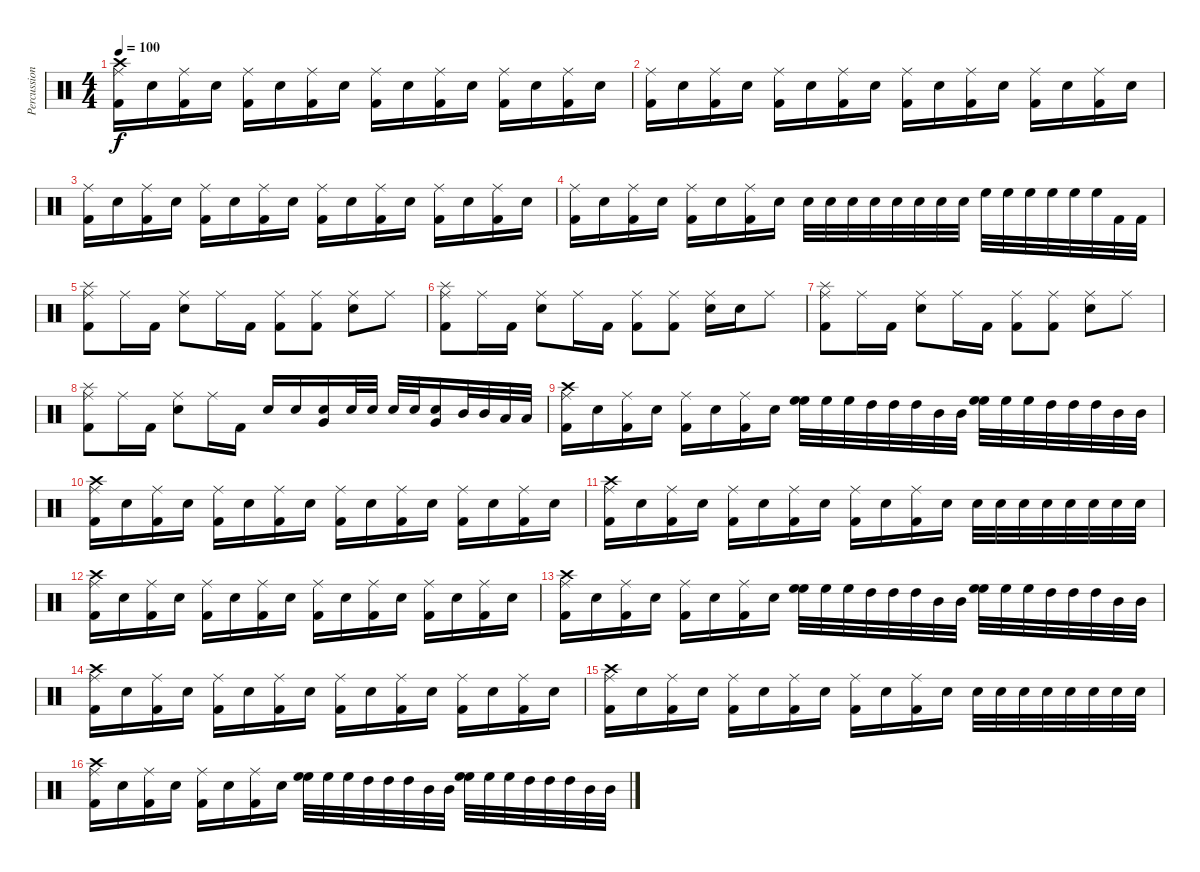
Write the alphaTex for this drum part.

\track ("Percussion" "Percussion") {instrument percussion}
\staff {score}
\articulation defaults
\ts (4 4)
\tempo 100
\clef neutral
\ks c
("Crash high (hit)" "Ride (middle)" "Kick (hit) 2").16{dy f} "Snare (hit) 2".16 ("Ride (middle)" "Kick (hit) 2").16 "Snare (hit) 2".16 ("Ride (middle)" "Kick (hit) 2").16 "Snare (hit) 2".16 ("Ride (middle)" "Kick (hit) 2").16 "Snare (hit) 2".16 ("Ride (middle)" "Kick (hit) 2").16 "Snare (hit) 2".16 ("Ride (middle)" "Kick (hit) 2").16 "Snare (hit) 2".16 ("Ride (middle)" "Kick (hit) 2").16 "Snare (hit) 2".16 ("Ride (middle)" "Kick (hit) 2").16 "Snare (hit) 2".16 |
("Ride (middle)" "Kick (hit) 2").16 "Snare (hit) 2".16 ("Ride (middle)" "Kick (hit) 2").16 "Snare (hit) 2".16 ("Ride (middle)" "Kick (hit) 2").16 "Snare (hit) 2".16 ("Ride (middle)" "Kick (hit) 2").16 "Snare (hit) 2".16 ("Ride (middle)" "Kick (hit) 2").16 "Snare (hit) 2".16 ("Ride (middle)" "Kick (hit) 2").16 "Snare (hit) 2".16 ("Ride (middle)" "Kick (hit) 2").16 "Snare (hit) 2".16 ("Ride (middle)" "Kick (hit) 2").16 "Snare (hit) 2".16 |
("Ride (middle)" "Kick (hit) 2").16 "Snare (hit) 2".16 ("Ride (middle)" "Kick (hit) 2").16 "Snare (hit) 2".16 ("Ride (middle)" "Kick (hit) 2").16 "Snare (hit) 2".16 ("Ride (middle)" "Kick (hit) 2").16 "Snare (hit) 2".16 ("Ride (middle)" "Kick (hit) 2").16 "Snare (hit) 2".16 ("Ride (middle)" "Kick (hit) 2").16 "Snare (hit) 2".16 ("Ride (middle)" "Kick (hit) 2").16 "Snare (hit) 2".16 ("Ride (middle)" "Kick (hit) 2").16 "Snare (hit) 2".16 |
("Ride (middle)" "Kick (hit) 2").16 "Snare (hit) 2".16 ("Ride (middle)" "Kick (hit) 2").16 "Snare (hit) 2".16 ("Ride (middle)" "Kick (hit) 2").16 "Snare (hit) 2".16 ("Ride (middle)" "Kick (hit) 2").16 "Snare (hit) 2".16 "Snare (hit) 2".32 "Snare (hit) 2".32 "Snare (hit) 2".32 "Snare (hit) 2".32 "Snare (hit) 2".32 "Snare (hit) 2".32 "Snare (hit) 2".32 "Snare (hit) 2".32 "High Floor Tom (hit)".32 "High Floor Tom (hit)".32 "High Floor Tom (hit)".32 "High Floor Tom (hit)".32 "High Floor Tom (hit)".32 "High Floor Tom (hit)".32 "Kick (hit) 2".32 "Kick (hit) 2".32 |
("Ride (middle)" "Splash (hit)" "Kick (hit) 2").8 "Ride (middle)".16 "Kick (hit) 2".16 ("Ride (middle)" "Snare (hit) 2").8 "Ride (middle)".16 "Kick (hit) 2".16 ("Ride (middle)" "Kick (hit) 2").8 ("Ride (middle)" "Kick (hit) 2").8 ("Ride (middle)" "Snare (hit) 2").8 "Ride (middle)".8 |
("Ride (middle)" "Splash (hit)" "Kick (hit) 2").8 "Ride (middle)".16 "Kick (hit) 2".16 ("Ride (middle)" "Snare (hit) 2").8 "Ride (middle)".16 "Kick (hit) 2".16 ("Ride (middle)" "Kick (hit) 2").8 ("Ride (middle)" "Kick (hit) 2").8 ("Ride (middle)" "Snare (hit) 2").16 "Snare (hit) 2".16 "Ride (middle)".8 |
("Ride (middle)" "Splash (hit)" "Kick (hit) 2").8 "Ride (middle)".16 "Kick (hit) 2".16 ("Ride (middle)" "Snare (hit) 2").8 "Ride (middle)".16 "Kick (hit) 2".16 ("Ride (middle)" "Kick (hit) 2").8 ("Ride (middle)" "Kick (hit) 2").8 ("Ride (middle)" "Snare (hit) 2").8 "Ride (middle)".8 |
("Ride (middle)" "Splash (hit)" "Kick (hit) 2").8 "Ride (middle)".16 "Kick (hit) 2".16 ("Ride (middle)" "Snare (hit) 2").8 "Ride (middle)".16 "Kick (hit) 2".16 "Snare (hit) 2".16 "Snare (hit) 2".16 ("Very Low Tom (hit)" "Snare (hit) 2").16 "Snare (hit) 2".32 "Snare (hit) 2".32 "Snare (hit) 2".32 "Snare (hit) 2".32 ("Very Low Tom (hit)" "Snare (hit) 2").16 "Mid Tom (hit)".32 "Mid Tom (hit)".32 "Low Tom (hit)".32 "Low Tom (hit)".32 |
("Crash high (hit)" "Ride (middle)" "Kick (hit) 2").16 "Snare (hit) 2".16 ("Ride (middle)" "Kick (hit) 2").16 "Snare (hit) 2".16 ("Ride (middle)" "Kick (hit) 2").16 "Snare (hit) 2".16 ("Ride (middle)" "Kick (hit) 2").16 "Snare (hit) 2".16 ("High Floor Tom (hit)" "High Floor Tom (hit)").32 "High Floor Tom (hit)".32 "High Floor Tom (hit)".32 "High Tom (hit)".32 "High Tom (hit)".32 "High Tom (hit)".32 "Mid Tom (hit)".32 "Mid Tom (hit)".32 ("High Floor Tom (hit)" "High Floor Tom (hit)").32 "High Floor Tom (hit)".32 "High Floor Tom (hit)".32 "High Tom (hit)".32 "High Tom (hit)".32 "High Tom (hit)".32 "Mid Tom (hit)".32 "Mid Tom (hit)".32 |
("Crash high (hit)" "Ride (middle)" "Kick (hit) 2").16 "Snare (hit) 2".16 ("Ride (middle)" "Kick (hit) 2").16 "Snare (hit) 2".16 ("Ride (middle)" "Kick (hit) 2").16 "Snare (hit) 2".16 ("Ride (middle)" "Kick (hit) 2").16 "Snare (hit) 2".16 ("Ride (middle)" "Kick (hit) 2").16 "Snare (hit) 2".16 ("Ride (middle)" "Kick (hit) 2").16 "Snare (hit) 2".16 ("Ride (middle)" "Kick (hit) 2").16 "Snare (hit) 2".16 ("Ride (middle)" "Kick (hit) 2").16 "Snare (hit) 2".16 |
("Crash high (hit)" "Ride (middle)" "Kick (hit) 2").16 "Snare (hit) 2".16 ("Ride (middle)" "Kick (hit) 2").16 "Snare (hit) 2".16 ("Ride (middle)" "Kick (hit) 2").16 "Snare (hit) 2".16 ("Ride (middle)" "Kick (hit) 2").16 "Snare (hit) 2".16 ("Ride (middle)" "Kick (hit) 2").16 "Snare (hit) 2".16 ("Ride (middle)" "Kick (hit) 2").16 "Snare (hit) 2".16 "Snare (hit) 2".32 "Snare (hit) 2".32 "Snare (hit) 2".32 "Snare (hit) 2".32 "Snare (hit) 2".32 "Snare (hit) 2".32 "Snare (hit) 2".32 "Snare (hit) 2".32 |
("Crash high (hit)" "Ride (middle)" "Kick (hit) 2").16 "Snare (hit) 2".16 ("Ride (middle)" "Kick (hit) 2").16 "Snare (hit) 2".16 ("Ride (middle)" "Kick (hit) 2").16 "Snare (hit) 2".16 ("Ride (middle)" "Kick (hit) 2").16 "Snare (hit) 2".16 ("Ride (middle)" "Kick (hit) 2").16 "Snare (hit) 2".16 ("Ride (middle)" "Kick (hit) 2").16 "Snare (hit) 2".16 ("Ride (middle)" "Kick (hit) 2").16 "Snare (hit) 2".16 ("Ride (middle)" "Kick (hit) 2").16 "Snare (hit) 2".16 |
("Crash high (hit)" "Ride (middle)" "Kick (hit) 2").16 "Snare (hit) 2".16 ("Ride (middle)" "Kick (hit) 2").16 "Snare (hit) 2".16 ("Ride (middle)" "Kick (hit) 2").16 "Snare (hit) 2".16 ("Ride (middle)" "Kick (hit) 2").16 "Snare (hit) 2".16 ("High Floor Tom (hit)" "High Floor Tom (hit)").32 "High Floor Tom (hit)".32 "High Floor Tom (hit)".32 "High Tom (hit)".32 "High Tom (hit)".32 "High Tom (hit)".32 "Mid Tom (hit)".32 "Mid Tom (hit)".32 ("High Floor Tom (hit)" "High Floor Tom (hit)").32 "High Floor Tom (hit)".32 "High Floor Tom (hit)".32 "High Tom (hit)".32 "High Tom (hit)".32 "High Tom (hit)".32 "Mid Tom (hit)".32 "Mid Tom (hit)".32 |
("Crash high (hit)" "Ride (middle)" "Kick (hit) 2").16 "Snare (hit) 2".16 ("Ride (middle)" "Kick (hit) 2").16 "Snare (hit) 2".16 ("Ride (middle)" "Kick (hit) 2").16 "Snare (hit) 2".16 ("Ride (middle)" "Kick (hit) 2").16 "Snare (hit) 2".16 ("Ride (middle)" "Kick (hit) 2").16 "Snare (hit) 2".16 ("Ride (middle)" "Kick (hit) 2").16 "Snare (hit) 2".16 ("Ride (middle)" "Kick (hit) 2").16 "Snare (hit) 2".16 ("Ride (middle)" "Kick (hit) 2").16 "Snare (hit) 2".16 |
("Crash high (hit)" "Ride (middle)" "Kick (hit) 2").16 "Snare (hit) 2".16 ("Ride (middle)" "Kick (hit) 2").16 "Snare (hit) 2".16 ("Ride (middle)" "Kick (hit) 2").16 "Snare (hit) 2".16 ("Ride (middle)" "Kick (hit) 2").16 "Snare (hit) 2".16 ("Ride (middle)" "Kick (hit) 2").16 "Snare (hit) 2".16 ("Ride (middle)" "Kick (hit) 2").16 "Snare (hit) 2".16 "Snare (hit) 2".32 "Snare (hit) 2".32 "Snare (hit) 2".32 "Snare (hit) 2".32 "Snare (hit) 2".32 "Snare (hit) 2".32 "Snare (hit) 2".32 "Snare (hit) 2".32 |
("Crash high (hit)" "Ride (middle)" "Kick (hit) 2").16 "Snare (hit) 2".16 ("Ride (middle)" "Kick (hit) 2").16 "Snare (hit) 2".16 ("Ride (middle)" "Kick (hit) 2").16 "Snare (hit) 2".16 ("Ride (middle)" "Kick (hit) 2").16 "Snare (hit) 2".16 ("High Floor Tom (hit)" "High Floor Tom (hit)").32 "High Floor Tom (hit)".32 "High Floor Tom (hit)".32 "High Tom (hit)".32 "High Tom (hit)".32 "High Tom (hit)".32 "Mid Tom (hit)".32 "Mid Tom (hit)".32 ("High Floor Tom (hit)" "High Floor Tom (hit)").32 "High Floor Tom (hit)".32 "High Floor Tom (hit)".32 "High Tom (hit)".32 "High Tom (hit)".32 "High Tom (hit)".32 "Mid Tom (hit)".32 "Mid Tom (hit)".32
